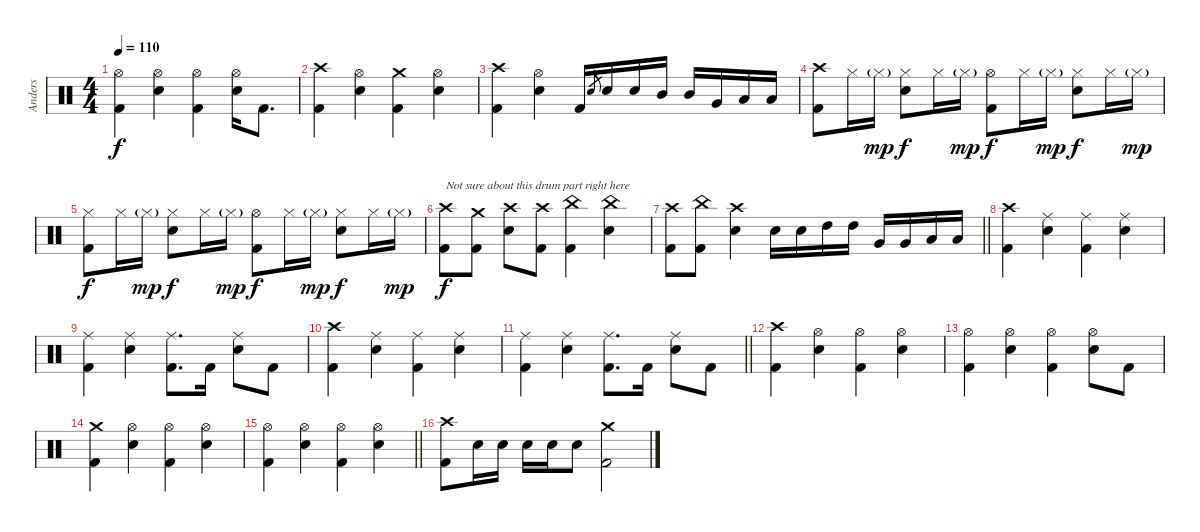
\track ("Anders" "Anders") {instrument percussion}
\staff {score}
\articulation defaults
\ts (4 4)
\tempo 110
\clef neutral
\ks c
("Hi-Hat (open)" "Kick (hit) 2").4{dy f} ("Hi-Hat (open)" "Snare (hit) 2").4 ("Hi-Hat (open)" "Kick (hit) 2").4 ("Hi-Hat (open)" "Snare (hit) 2").16 "Kick (hit) 2".8{d} |
("Crash high (hit)" "Kick (hit) 2").4 ("Hi-Hat (open)" "Snare (hit) 2").4 ("Crash medium (hit)" "Kick (hit) 2").4 ("Hi-Hat (open)" "Snare (hit) 2").4 |
("Crash high (hit)" "Kick (hit) 2").4 ("Hi-Hat (open)" "Snare (hit) 2").4 "Kick (hit) 2".16 "Snare (hit) 2".8{gr} "Snare (hit) 2".16 "Snare (hit) 2".16 "Mid Tom (hit)".16 "Mid Tom (hit)".16 "Very Low Tom (hit)".16 "Low Floor Tom (hit)".16 "Low Floor Tom (hit)".16 |
("Crash high (hit)" "Kick (hit) 2").8 "Hi-Hat (closed)".16 "Hi-Hat (closed)"{g}.16{dy mp} ("Hi-Hat (closed)" "Snare (hit) 2").8{dy f} "Hi-Hat (closed)".16 "Hi-Hat (closed)"{g}.16{dy mp} ("Hi-Hat (open)" "Kick (hit) 2").8{dy f} "Hi-Hat (closed)".16 "Hi-Hat (closed)"{g}.16{dy mp} ("Hi-Hat (closed)" "Snare (hit) 2").8{dy f} "Hi-Hat (closed)".16 "Hi-Hat (closed)"{g}.16{dy mp} |
("Hi-Hat (closed)" "Kick (hit) 2").8{dy f} "Hi-Hat (closed)".16 "Hi-Hat (closed)"{g}.16{dy mp} ("Hi-Hat (closed)" "Snare (hit) 2").8{dy f} "Hi-Hat (closed)".16 "Hi-Hat (closed)"{g}.16{dy mp} ("Hi-Hat (open)" "Kick (hit) 2").8{dy f} "Hi-Hat (closed)".16 "Hi-Hat (closed)"{g}.16{dy mp} ("Hi-Hat (closed)" "Snare (hit) 2").8{dy f} "Hi-Hat (closed)".16 "Hi-Hat (closed)"{g}.16{dy mp} |
("Crash high (hit)" "Kick (hit) 2").8{txt "Not sure about this drum part right here" dy f} ("Crash medium (hit)" "Kick (hit) 2").8 ("Crash high (hit)" "Snare (hit) 2").8 ("Crash high (hit)" "Kick (hit) 2").8 ("China (hit)" "Kick (hit) 2").4 ("China (hit)" "Snare (hit) 2").4 |
\barLineRight lightlight
("Crash high (hit)" "Kick (hit) 2").8 ("China (hit)" "Kick (hit) 2").8 ("Crash high (hit)" "Snare (hit) 2").4 "Snare (hit) 2".16 "Snare (hit) 2".16 "High Tom (hit)".16 "High Tom (hit)".16 "Very Low Tom (hit)".16 "Very Low Tom (hit)".16 "Low Floor Tom (hit)".16 "Low Floor Tom (hit)".16 |
("Crash high (hit)" "Kick (hit) 2").4 ("Ride (middle)" "Snare (hit) 2").4 ("Ride (middle)" "Kick (hit) 2").4 ("Ride (middle)" "Snare (hit) 2").4 |
("Ride (middle)" "Kick (hit) 2").4 ("Ride (middle)" "Snare (hit) 2").4 ("Ride (middle)" "Kick (hit) 2").8{d} "Kick (hit) 2".16 ("Ride (middle)" "Snare (hit) 2").8 "Kick (hit) 2".8 |
("Crash high (hit)" "Kick (hit) 2").4 ("Ride (middle)" "Snare (hit) 2").4 ("Ride (middle)" "Kick (hit) 2").4 ("Ride (middle)" "Snare (hit) 2").4 |
\barLineRight lightlight
("Ride (middle)" "Kick (hit) 2").4 ("Ride (middle)" "Snare (hit) 2").4 ("Ride (middle)" "Kick (hit) 2").8{d} "Kick (hit) 2".16 ("Ride (middle)" "Snare (hit) 2").8 "Kick (hit) 2".8 |
("Crash high (hit)" "Kick (hit) 2").4 ("Hi-Hat (open)" "Snare (hit) 2").4 ("Hi-Hat (open)" "Kick (hit) 2").4 ("Hi-Hat (open)" "Snare (hit) 2").4 |
("Hi-Hat (open)" "Kick (hit) 2").4 ("Hi-Hat (open)" "Snare (hit) 2").4 ("Hi-Hat (open)" "Kick (hit) 2").4 ("Hi-Hat (open)" "Snare (hit) 2").8 "Kick (hit) 2".8 |
("Crash medium (hit)" "Kick (hit) 2").4 ("Hi-Hat (open)" "Snare (hit) 2").4 ("Hi-Hat (open)" "Kick (hit) 2").4 ("Hi-Hat (open)" "Snare (hit) 2").4 |
\barLineRight lightlight
("Hi-Hat (open)" "Kick (hit) 2").4 ("Hi-Hat (open)" "Snare (hit) 2").4 ("Hi-Hat (open)" "Kick (hit) 2").4 ("Hi-Hat (open)" "Snare (hit) 2").4 |
("Crash high (hit)" "Kick (hit) 2").8 "Snare (hit) 2".16 "Snare (hit) 2".16 "Snare (hit) 2".16 "Snare (hit) 2".16 "Snare (hit) 2".8 ("Crash medium (hit)" "Kick (hit) 2").2
